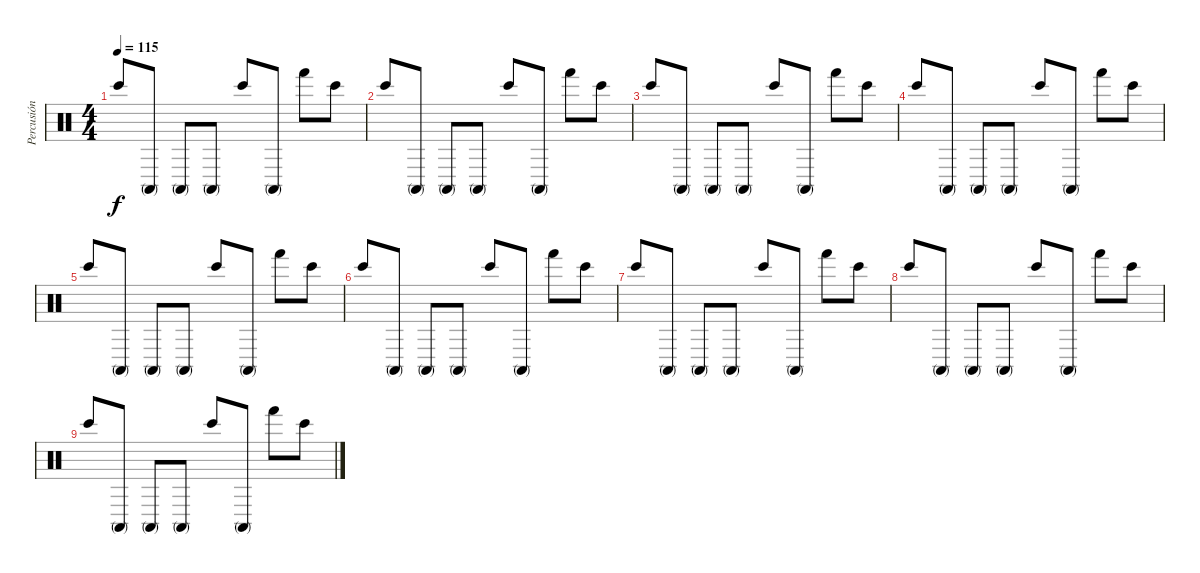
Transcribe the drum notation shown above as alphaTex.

\track ("Percusión" "Percusión") {instrument percussion}
\staff {score}
\articulation defaults
\ts (4 4)
\tempo 115
\clef neutral
\ks c "Bongo High (hit)".8{dy f} "Conga high (mute)".8 "Conga high (mute)".8 "Conga high (mute)".8 "Bongo High (hit)".8 "Conga high (mute)".8 "Hand (hit)".8 "Bongo High (hit)".8
|
"Bongo High (hit)".8 "Conga high (mute)".8 "Conga high (mute)".8 "Conga high (mute)".8 "Bongo High (hit)".8 "Conga high (mute)".8 "Hand (hit)".8 "Bongo High (hit)".8 |
"Bongo High (hit)".8 "Conga high (mute)".8 "Conga high (mute)".8 "Conga high (mute)".8 "Bongo High (hit)".8 "Conga high (mute)".8 "Hand (hit)".8 "Bongo High (hit)".8 |
"Bongo High (hit)".8 "Conga high (mute)".8 "Conga high (mute)".8 "Conga high (mute)".8 "Bongo High (hit)".8 "Conga high (mute)".8 "Hand (hit)".8 "Bongo High (hit)".8 |
"Bongo High (hit)".8 "Conga high (mute)".8 "Conga high (mute)".8 "Conga high (mute)".8 "Bongo High (hit)".8 "Conga high (mute)".8 "Hand (hit)".8 "Bongo High (hit)".8 |
"Bongo High (hit)".8 "Conga high (mute)".8 "Conga high (mute)".8 "Conga high (mute)".8 "Bongo High (hit)".8 "Conga high (mute)".8 "Hand (hit)".8 "Bongo High (hit)".8 |
"Bongo High (hit)".8 "Conga high (mute)".8 "Conga high (mute)".8 "Conga high (mute)".8 "Bongo High (hit)".8 "Conga high (mute)".8 "Hand (hit)".8 "Bongo High (hit)".8 |
"Bongo High (hit)".8 "Conga high (mute)".8 "Conga high (mute)".8 "Conga high (mute)".8 "Bongo High (hit)".8 "Conga high (mute)".8 "Hand (hit)".8 "Bongo High (hit)".8 |
"Bongo High (hit)".8 "Conga high (mute)".8 "Conga high (mute)".8 "Conga high (mute)".8 "Bongo High (hit)".8 "Conga high (mute)".8 "Hand (hit)".8 "Bongo High (hit)".8
